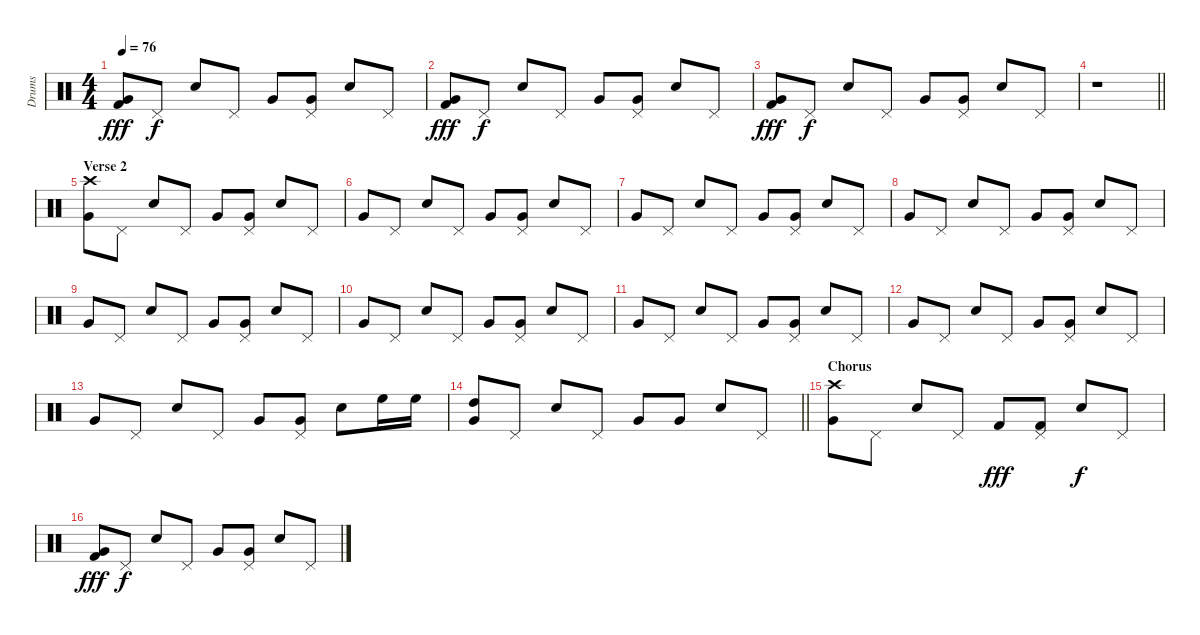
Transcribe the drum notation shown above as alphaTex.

\track ("Drums" "Drums") {instrument percussion}
\staff {score}
\articulation defaults
\ts (4 4)
\tempo 76
\clef neutral
\ks c
("Kick (hit) 2" "Very Low Tom (hit)").8{dy fff} "Pedal Hi-Hat (hit)".8{dy f} "Electric Snare (hit)".8 "Pedal Hi-Hat (hit)".8 "Very Low Tom (hit)".8 ("Very Low Tom (hit)" "Pedal Hi-Hat (hit)").8 "Electric Snare (hit)".8 "Pedal Hi-Hat (hit)".8 |
("Kick (hit) 2" "Very Low Tom (hit)").8{dy fff} "Pedal Hi-Hat (hit)".8{dy f} "Electric Snare (hit)".8 "Pedal Hi-Hat (hit)".8 "Very Low Tom (hit)".8 ("Very Low Tom (hit)" "Pedal Hi-Hat (hit)").8 "Electric Snare (hit)".8 "Pedal Hi-Hat (hit)".8 |
("Kick (hit) 2" "Very Low Tom (hit)").8{dy fff} "Pedal Hi-Hat (hit)".8{dy f} "Electric Snare (hit)".8 "Pedal Hi-Hat (hit)".8 "Very Low Tom (hit)".8 ("Very Low Tom (hit)" "Pedal Hi-Hat (hit)").8 "Electric Snare (hit)".8 "Pedal Hi-Hat (hit)".8 |
\barLineRight lightlight
r.1 |
\section ("" "Verse 2")
("Crash high (hit)" "Very Low Tom (hit)").8 "Pedal Hi-Hat (hit)".8 "Electric Snare (hit)".8 "Pedal Hi-Hat (hit)".8 "Very Low Tom (hit)".8 ("Very Low Tom (hit)" "Pedal Hi-Hat (hit)").8 "Electric Snare (hit)".8 "Pedal Hi-Hat (hit)".8 |
"Very Low Tom (hit)".8 "Pedal Hi-Hat (hit)".8 "Electric Snare (hit)".8 "Pedal Hi-Hat (hit)".8 "Very Low Tom (hit)".8 ("Very Low Tom (hit)" "Pedal Hi-Hat (hit)").8 "Electric Snare (hit)".8 "Pedal Hi-Hat (hit)".8 |
"Very Low Tom (hit)".8 "Pedal Hi-Hat (hit)".8 "Electric Snare (hit)".8 "Pedal Hi-Hat (hit)".8 "Very Low Tom (hit)".8 ("Very Low Tom (hit)" "Pedal Hi-Hat (hit)").8 "Electric Snare (hit)".8 "Pedal Hi-Hat (hit)".8 |
"Very Low Tom (hit)".8 "Pedal Hi-Hat (hit)".8 "Electric Snare (hit)".8 "Pedal Hi-Hat (hit)".8 "Very Low Tom (hit)".8 ("Very Low Tom (hit)" "Pedal Hi-Hat (hit)").8 "Electric Snare (hit)".8 "Pedal Hi-Hat (hit)".8 |
"Very Low Tom (hit)".8 "Pedal Hi-Hat (hit)".8 "Electric Snare (hit)".8 "Pedal Hi-Hat (hit)".8 "Very Low Tom (hit)".8 ("Very Low Tom (hit)" "Pedal Hi-Hat (hit)").8 "Electric Snare (hit)".8 "Pedal Hi-Hat (hit)".8 |
"Very Low Tom (hit)".8 "Pedal Hi-Hat (hit)".8 "Electric Snare (hit)".8 "Pedal Hi-Hat (hit)".8 "Very Low Tom (hit)".8 ("Very Low Tom (hit)" "Pedal Hi-Hat (hit)").8 "Electric Snare (hit)".8 "Pedal Hi-Hat (hit)".8 |
"Very Low Tom (hit)".8 "Pedal Hi-Hat (hit)".8 "Electric Snare (hit)".8 "Pedal Hi-Hat (hit)".8 "Very Low Tom (hit)".8 ("Very Low Tom (hit)" "Pedal Hi-Hat (hit)").8 "Electric Snare (hit)".8 "Pedal Hi-Hat (hit)".8 |
"Very Low Tom (hit)".8 "Pedal Hi-Hat (hit)".8 "Electric Snare (hit)".8 "Pedal Hi-Hat (hit)".8 "Very Low Tom (hit)".8 ("Very Low Tom (hit)" "Pedal Hi-Hat (hit)").8 "Electric Snare (hit)".8 "Pedal Hi-Hat (hit)".8 |
"Very Low Tom (hit)".8 "Pedal Hi-Hat (hit)".8 "Electric Snare (hit)".8 "Pedal Hi-Hat (hit)".8 "Very Low Tom (hit)".8 ("Very Low Tom (hit)" "Pedal Hi-Hat (hit)").8 "Electric Snare (hit)".8 "High Floor Tom (hit)".16 "High Floor Tom (hit)".16 |
\barLineRight lightlight
("High Tom (hit)" "Very Low Tom (hit)").8 "Pedal Hi-Hat (hit)".8 "Electric Snare (hit)".8 "Pedal Hi-Hat (hit)".8 "Very Low Tom (hit)".8 "Very Low Tom (hit)".8 "Electric Snare (hit)".8 "Pedal Hi-Hat (hit)".8 |
\section ("" "Chorus")
("Crash high (hit)" "Very Low Tom (hit)").8 "Pedal Hi-Hat (hit)".8 "Electric Snare (hit)".8 "Pedal Hi-Hat (hit)".8 "Kick (hit) 2".8{dy fff} ("Kick (hit) 2" "Pedal Hi-Hat (hit)").8 "Electric Snare (hit)".8{dy f} "Pedal Hi-Hat (hit)".8 |
("Kick (hit) 2" "Very Low Tom (hit)").8{dy fff} "Pedal Hi-Hat (hit)".8{dy f} "Electric Snare (hit)".8 "Pedal Hi-Hat (hit)".8 "Very Low Tom (hit)".8 ("Very Low Tom (hit)" "Pedal Hi-Hat (hit)").8 "Electric Snare (hit)".8 "Pedal Hi-Hat (hit)".8
